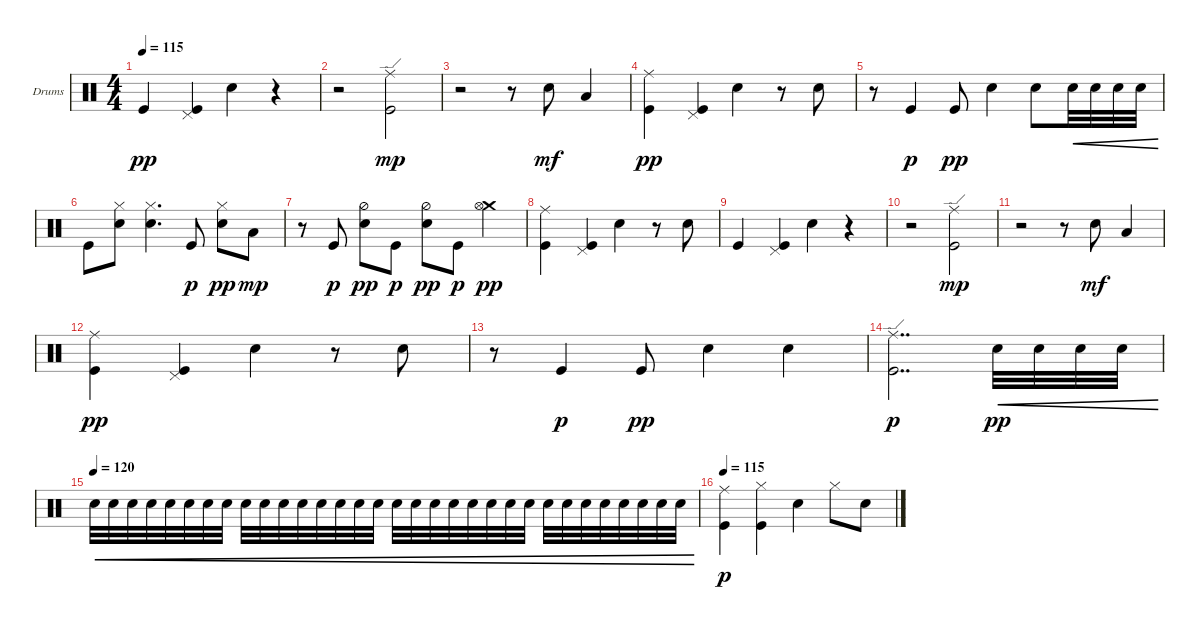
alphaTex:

\defaultSystemsLayout 4
\bracketExtendMode groupsimilarinstruments
\firstSystemTrackNameOrientation horizontal
\otherSystemsTrackNameOrientation horizontal
\track ("Drumkit" "Drums") {instrument percussion}
\staff {score}
\articulation defaults
\ts (4 4)
\tempo 115
\clef neutral
\ks c "Kick (hit)".4{dy pp}
("Kick (hit)" "Pedal Hi-Hat (hit)").4 "Snare (hit) 2".4 r.4 |
r.2 ("Kick (hit)" "Ride (edge)").2{dy mp} |
r.2 r.8 "Snare (hit) 2".8{dy mf} "Low Tom (hit)".4 |
("Kick (hit)" "Ride (middle)").4{dy pp} ("Kick (hit)" "Pedal Hi-Hat (hit)").4 "Snare (hit) 2".4 r.8 "Snare (hit) 2".8 |
r.8 "Kick (hit)".4{dy p} "Kick (hit)".8{dy pp} "Snare (hit) 2".4 "Snare (hit) 2".8 "Snare (hit) 2".32{cre} "Snare (hit) 2".32{cre} "Snare (hit) 2".32{cre} "Snare (hit) 2".32{cre} |
"Kick (hit)".8 ("Snare (hit) 2" "Hi-Hat (closed)").8 ("Snare (hit) 2" "Hi-Hat (closed)").4{d} "Kick (hit)".8{dy p} ("Snare (hit) 2" "Hi-Hat (closed)").8{dy pp} "Low Tom (hit)".8{dy mp} |
r.8 "Kick (hit)".8{dy p} ("Snare (hit) 2" "Hi-Hat (half)").8{dy pp} "Kick (hit)".8{dy p} ("Snare (hit) 2" "Hi-Hat (half)").8{dy pp} "Kick (hit)".8{dy p} ("Crash medium (hit)" "Hi-Hat (open)").4{dy pp} |
("Kick (hit)" "Ride (middle)").4 ("Kick (hit)" "Pedal Hi-Hat (hit)").4 "Snare (hit) 2".4 r.8 "Snare (hit) 2".8 |
"Kick (hit)".4 ("Kick (hit)" "Pedal Hi-Hat (hit)").4 "Snare (hit) 2".4 r.4 |
r.2 ("Kick (hit)" "Ride (edge)").2{dy mp} |
r.2 r.8 "Snare (hit) 2".8{dy mf} "Low Tom (hit)".4 |
("Kick (hit)" "Ride (middle)").4{dy pp} ("Kick (hit)" "Pedal Hi-Hat (hit)").4 "Snare (hit) 2".4 r.8 "Snare (hit) 2".8 |
r.8 "Kick (hit)".4{dy p} "Kick (hit)".8{dy pp} "Snare (hit) 2".4 "Snare (hit) 2".4 |
("Kick (hit)" "Ride (edge)").2{dd dy p} "Snare (hit) 2".32{cre dy pp} "Snare (hit) 2".32{cre} "Snare (hit) 2".32{cre} "Snare (hit) 2".32{cre} |
\tempo (120)
"Snare (hit) 2".32{cre} "Snare (hit) 2".32{cre} "Snare (hit) 2".32{cre} "Snare (hit) 2".32{cre} "Snare (hit) 2".32{cre} "Snare (hit) 2".32{cre} "Snare (hit) 2".32{cre} "Snare (hit) 2".32{cre} "Snare (hit) 2".32{cre} "Snare (hit) 2".32{cre} "Snare (hit) 2".32{cre} "Snare (hit) 2".32{cre} "Snare (hit) 2".32{cre} "Snare (hit) 2".32{cre} "Snare (hit) 2".32{cre} "Snare (hit) 2".32{cre} "Snare (hit) 2".32{cre} "Snare (hit) 2".32{cre} "Snare (hit) 2".32{cre} "Snare (hit) 2".32{cre} "Snare (hit) 2".32{cre} "Snare (hit) 2".32{cre} "Snare (hit) 2".32{cre} "Snare (hit) 2".32{cre} "Snare (hit) 2".32{cre} "Snare (hit) 2".32{cre} "Snare (hit) 2".32{cre} "Snare (hit) 2".32{cre} "Snare (hit) 2".32{cre} "Snare (hit) 2".32{cre} "Snare (hit) 2".32{cre} "Snare (hit) 2".32{cre} |
\tempo 115
("Kick (hit)" "Ride (middle)").4{dy p} ("Kick (hit)" "Hi-Hat (closed)").4 "Snare (hit) 2".4 "Hi-Hat (closed)".8 "Snare (hit) 2".8
